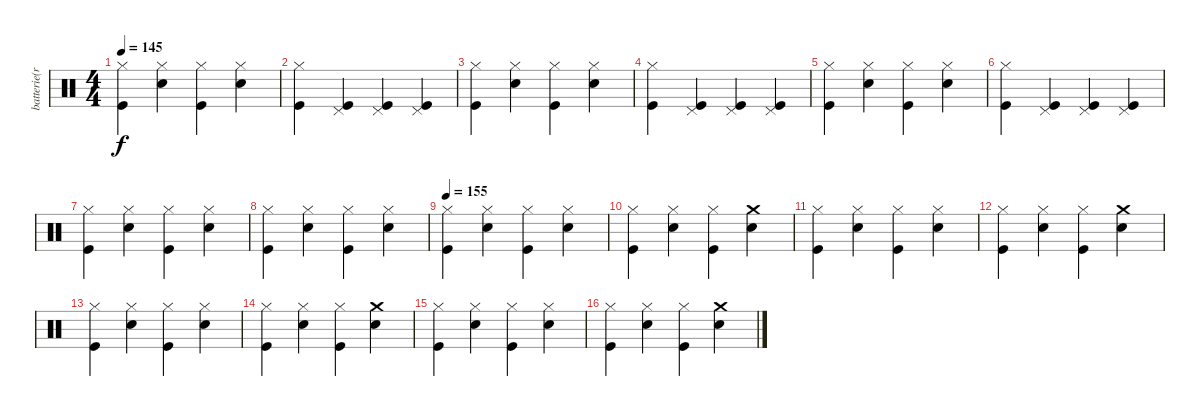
\track ("batterie(rimbaud)" "batterie(r") {instrument percussion}
\staff {score}
\articulation defaults
\ts (4 4)
\tempo 145
\clef neutral
\ks c
("Hi-Hat (closed)" "Kick (hit)").4{dy f} ("Hi-Hat (closed)" "Snare (hit) 2").4 ("Hi-Hat (closed)" "Kick (hit)").4 ("Hi-Hat (closed)" "Snare (hit) 2").4 |
("Hi-Hat (closed)" "Kick (hit)").4 ("Pedal Hi-Hat (hit)" "Kick (hit)").4 ("Pedal Hi-Hat (hit)" "Kick (hit)").4 ("Pedal Hi-Hat (hit)" "Kick (hit)").4 |
("Hi-Hat (closed)" "Kick (hit)").4 ("Hi-Hat (closed)" "Snare (hit) 2").4 ("Hi-Hat (closed)" "Kick (hit)").4 ("Hi-Hat (closed)" "Snare (hit) 2").4 |
("Hi-Hat (closed)" "Kick (hit)").4 ("Pedal Hi-Hat (hit)" "Kick (hit)").4 ("Pedal Hi-Hat (hit)" "Kick (hit)").4 ("Pedal Hi-Hat (hit)" "Kick (hit)").4 |
("Hi-Hat (closed)" "Kick (hit)").4 ("Hi-Hat (closed)" "Snare (hit) 2").4 ("Hi-Hat (closed)" "Kick (hit)").4 ("Hi-Hat (closed)" "Snare (hit) 2").4 |
("Hi-Hat (closed)" "Kick (hit)").4 ("Pedal Hi-Hat (hit)" "Kick (hit)").4 ("Pedal Hi-Hat (hit)" "Kick (hit)").4 ("Pedal Hi-Hat (hit)" "Kick (hit)").4 |
("Hi-Hat (closed)" "Kick (hit)").4 ("Hi-Hat (closed)" "Snare (hit) 2").4 ("Hi-Hat (closed)" "Kick (hit)").4 ("Hi-Hat (closed)" "Snare (hit) 2").4 |
("Hi-Hat (closed)" "Kick (hit)").4 ("Hi-Hat (closed)" "Snare (hit) 2").4 ("Hi-Hat (closed)" "Kick (hit)").4 ("Hi-Hat (closed)" "Snare (hit) 2").4 |
\tempo 155
("Hi-Hat (closed)" "Kick (hit)").4 ("Hi-Hat (closed)" "Snare (hit) 2").4 ("Hi-Hat (closed)" "Kick (hit)").4 ("Hi-Hat (closed)" "Snare (hit) 2").4 |
("Hi-Hat (closed)" "Kick (hit)").4 ("Hi-Hat (closed)" "Snare (hit) 2").4 ("Hi-Hat (closed)" "Kick (hit)").4 ("Crash medium (hit)" "Snare (hit) 2").4 |
("Hi-Hat (closed)" "Kick (hit)").4 ("Hi-Hat (closed)" "Snare (hit) 2").4 ("Hi-Hat (closed)" "Kick (hit)").4 ("Hi-Hat (closed)" "Snare (hit) 2").4 |
("Hi-Hat (closed)" "Kick (hit)").4 ("Hi-Hat (closed)" "Snare (hit) 2").4 ("Hi-Hat (closed)" "Kick (hit)").4 ("Crash medium (hit)" "Snare (hit) 2").4 |
("Hi-Hat (closed)" "Kick (hit)").4 ("Hi-Hat (closed)" "Snare (hit) 2").4 ("Hi-Hat (closed)" "Kick (hit)").4 ("Hi-Hat (closed)" "Snare (hit) 2").4 |
("Hi-Hat (closed)" "Kick (hit)").4 ("Hi-Hat (closed)" "Snare (hit) 2").4 ("Hi-Hat (closed)" "Kick (hit)").4 ("Crash medium (hit)" "Snare (hit) 2").4 |
("Hi-Hat (closed)" "Kick (hit)").4 ("Hi-Hat (closed)" "Snare (hit) 2").4 ("Hi-Hat (closed)" "Kick (hit)").4 ("Hi-Hat (closed)" "Snare (hit) 2").4 |
("Hi-Hat (closed)" "Kick (hit)").4 ("Hi-Hat (closed)" "Snare (hit) 2").4 ("Hi-Hat (closed)" "Kick (hit)").4 ("Crash medium (hit)" "Snare (hit) 2").4
